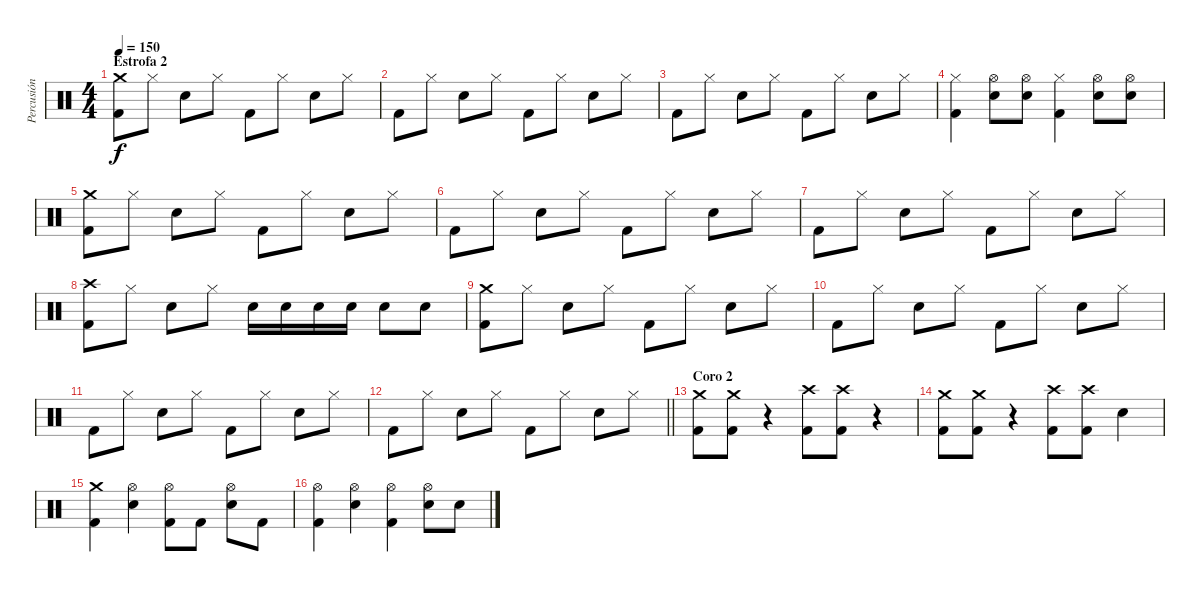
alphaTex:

\track ("Percusión" "Percusión") {instrument percussion}
\staff {score}
\articulation defaults
\ts (4 4)
\section ("" "Estrofa 2")
\tempo 150
\clef neutral
\ks c
("Crash medium (hit)" "Kick (hit) 2").8{dy f} "Hi-Hat (closed)".8 "Electric Snare (hit)".8 "Hi-Hat (closed)".8 "Kick (hit) 2".8 "Hi-Hat (closed)".8 "Electric Snare (hit)".8 "Hi-Hat (closed)".8 |
"Kick (hit) 2".8 "Hi-Hat (closed)".8 "Electric Snare (hit)".8 "Hi-Hat (closed)".8 "Kick (hit) 2".8 "Hi-Hat (closed)".8 "Electric Snare (hit)".8 "Hi-Hat (closed)".8 |
"Kick (hit) 2".8 "Hi-Hat (closed)".8 "Electric Snare (hit)".8 "Hi-Hat (closed)".8 "Kick (hit) 2".8 "Hi-Hat (closed)".8 "Electric Snare (hit)".8 "Hi-Hat (closed)".8 |
("Hi-Hat (closed)" "Kick (hit) 2").4 ("Hi-Hat (open)" "Electric Snare (hit)").8 ("Hi-Hat (open)" "Electric Snare (hit)").8 ("Hi-Hat (closed)" "Kick (hit) 2").4 ("Hi-Hat (open)" "Electric Snare (hit)").8 ("Hi-Hat (open)" "Electric Snare (hit)").8 |
("Crash medium (hit)" "Kick (hit) 2").8 "Hi-Hat (closed)".8 "Electric Snare (hit)".8 "Hi-Hat (closed)".8 "Kick (hit) 2".8 "Hi-Hat (closed)".8 "Electric Snare (hit)".8 "Hi-Hat (closed)".8 |
"Kick (hit) 2".8 "Hi-Hat (closed)".8 "Electric Snare (hit)".8 "Hi-Hat (closed)".8 "Kick (hit) 2".8 "Hi-Hat (closed)".8 "Electric Snare (hit)".8 "Hi-Hat (closed)".8 |
"Kick (hit) 2".8 "Hi-Hat (closed)".8 "Electric Snare (hit)".8 "Hi-Hat (closed)".8 "Kick (hit) 2".8 "Hi-Hat (closed)".8 "Electric Snare (hit)".8 "Hi-Hat (closed)".8 |
("Crash high (hit)" "Kick (hit) 2").8 "Hi-Hat (closed)".8 "Electric Snare (hit)".8 "Hi-Hat (closed)".8 "Electric Snare (hit)".16 "Electric Snare (hit)".16 "Electric Snare (hit)".16 "Electric Snare (hit)".16 "Electric Snare (hit)".8 "Electric Snare (hit)".8 |
("Crash medium (hit)" "Kick (hit) 2").8 "Hi-Hat (closed)".8 "Electric Snare (hit)".8 "Hi-Hat (closed)".8 "Kick (hit) 2".8 "Hi-Hat (closed)".8 "Electric Snare (hit)".8 "Hi-Hat (closed)".8 |
"Kick (hit) 2".8 "Hi-Hat (closed)".8 "Electric Snare (hit)".8 "Hi-Hat (closed)".8 "Kick (hit) 2".8 "Hi-Hat (closed)".8 "Electric Snare (hit)".8 "Hi-Hat (closed)".8 |
"Kick (hit) 2".8 "Hi-Hat (closed)".8 "Electric Snare (hit)".8 "Hi-Hat (closed)".8 "Kick (hit) 2".8 "Hi-Hat (closed)".8 "Electric Snare (hit)".8 "Hi-Hat (closed)".8 |
\barLineRight lightlight "Kick (hit) 2".8 "Hi-Hat (closed)".8 "Electric Snare (hit)".8 "Hi-Hat (closed)".8 "Kick (hit) 2".8 "Hi-Hat (closed)".8 "Electric Snare (hit)".8 "Hi-Hat (closed)".8
|
\section ("" "Coro 2")
("Crash medium (hit)" "Kick (hit) 2").8 ("Crash medium (hit)" "Kick (hit) 2").8 r.4 ("Crash high (hit)" "Kick (hit) 2").8 ("Crash high (hit)" "Kick (hit) 2").8 r.4 |
("Crash medium (hit)" "Kick (hit) 2").8 ("Crash medium (hit)" "Kick (hit) 2").8 r.4 ("Crash high (hit)" "Kick (hit) 2").8 ("Crash high (hit)" "Kick (hit) 2").8 "Electric Snare (hit)".4 |
("Crash medium (hit)" "Kick (hit) 2").4 ("Hi-Hat (open)" "Electric Snare (hit)").4 ("Hi-Hat (open)" "Kick (hit) 2").8 "Kick (hit) 2".8 ("Hi-Hat (open)" "Electric Snare (hit)").8 "Kick (hit) 2".8 |
("Hi-Hat (open)" "Kick (hit) 2").4 ("Hi-Hat (open)" "Electric Snare (hit)").4 ("Hi-Hat (open)" "Kick (hit) 2").4 ("Hi-Hat (open)" "Electric Snare (hit)").8 "Electric Snare (hit)".8
